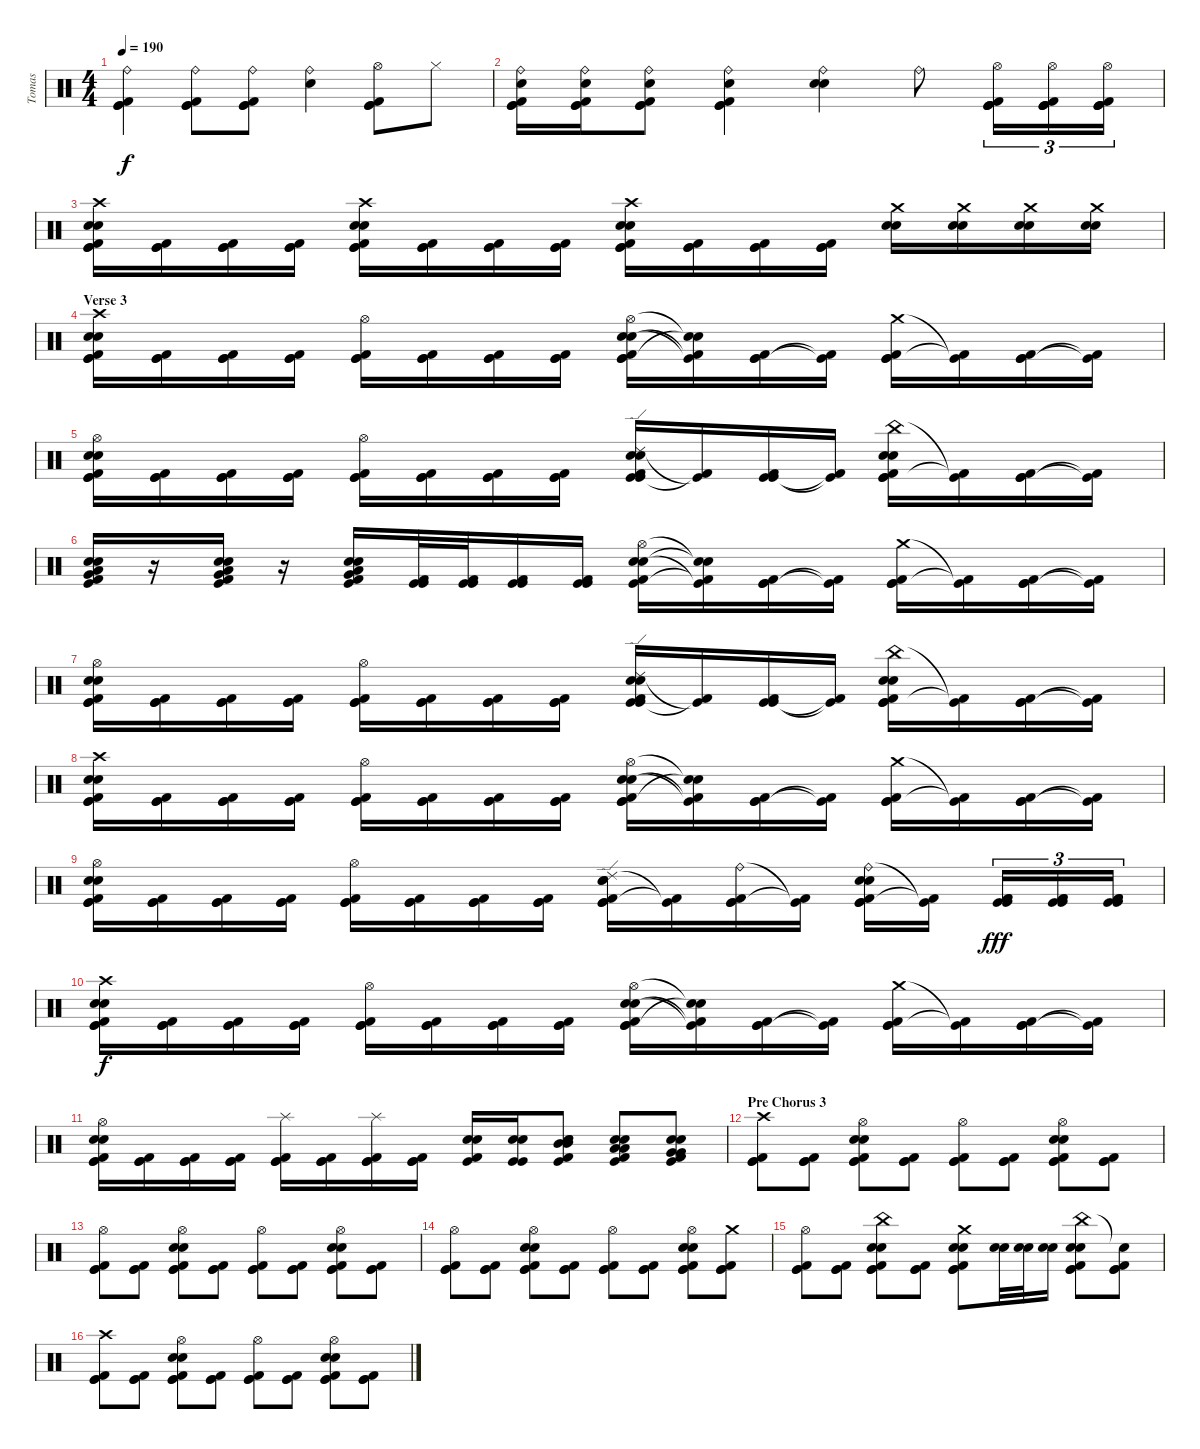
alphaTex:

\track ("Tomas" "Tomas") {instrument percussion}
\staff {score}
\articulation defaults
\ts (4 4)
\tempo 190
\clef neutral
\ks c
("Ride (bell)" "Kick (hit)" "Kick (hit)" "Kick (hit) 2").4{dy f} ("Ride (bell)" "Kick (hit)" "Kick (hit)" "Kick (hit) 2").8 ("Ride (bell)" "Kick (hit)" "Kick (hit)" "Kick (hit) 2").8 ("Ride (bell)" "Electric Snare (hit)").4 ("Hi-Hat (open)" "Kick (hit)" "Kick (hit)" "Kick (hit) 2").8 "Hi-Hat (closed)".8 |
("Ride (bell)" "Kick (hit)" "Electric Snare (hit)" "Kick (hit)" "Kick (hit) 2").16 ("Ride (bell)" "Kick (hit)" "Electric Snare (hit)" "Kick (hit)" "Kick (hit) 2").16 ("Ride (bell)" "Kick (hit)" "Electric Snare (hit)" "Kick (hit)" "Kick (hit) 2").8 ("Ride (bell)" "Kick (hit)" "Electric Snare (hit)" "Kick (hit)" "Kick (hit) 2").4 ("Ride (bell)" "Electric Snare (hit)" "Electric Snare (hit)").4 "Ride (bell)".8 ("Hi-Hat (open)" "Kick (hit)" "Kick (hit)" "Kick (hit)" "Kick (hit) 2").16{tu (3 2)} ("Hi-Hat (open)" "Kick (hit)" "Kick (hit)" "Kick (hit)" "Kick (hit) 2").16{tu (3 2)} ("Hi-Hat (open)" "Kick (hit)" "Kick (hit)" "Kick (hit)" "Kick (hit) 2").16{tu (3 2)} |
("Crash high (hit)" "Kick (hit)" "Kick (hit)" "Electric Snare (hit)" "Electric Snare (hit)" "Kick (hit) 2").16 ("Kick (hit)" "Kick (hit)" "Kick (hit) 2").16 ("Kick (hit)" "Kick (hit)" "Kick (hit) 2").16 ("Kick (hit)" "Kick (hit)" "Kick (hit) 2").16 ("Crash high (hit)" "Kick (hit)" "Kick (hit)" "Electric Snare (hit)" "Electric Snare (hit)" "Kick (hit) 2").16 ("Kick (hit)" "Kick (hit)" "Kick (hit) 2").16 ("Kick (hit)" "Kick (hit)" "Kick (hit) 2").16 ("Kick (hit)" "Kick (hit)" "Kick (hit) 2").16 ("Crash high (hit)" "Kick (hit)" "Kick (hit)" "Electric Snare (hit)" "Electric Snare (hit)" "Kick (hit) 2").16 ("Kick (hit)" "Kick (hit)" "Kick (hit) 2").16 ("Kick (hit)" "Kick (hit)" "Kick (hit) 2").16 ("Kick (hit)" "Kick (hit)" "Kick (hit) 2").16 ("Crash medium (hit)" "Electric Snare (hit)" "Electric Snare (hit)").16 ("Crash medium (hit)" "Electric Snare (hit)" "Electric Snare (hit)").16 ("Crash medium (hit)" "Electric Snare (hit)" "Electric Snare (hit)").16 ("Crash medium (hit)" "Electric Snare (hit)" "Electric Snare (hit)").16 |
\section ("" "Verse 3")
("Crash high (hit)" "Kick (hit)" "Electric Snare (hit)" "Electric Snare (hit)" "Kick (hit)" "Kick (hit) 2").16 ("Kick (hit)" "Kick (hit)" "Kick (hit) 2").16 ("Kick (hit)" "Kick (hit)" "Kick (hit) 2").16 ("Kick (hit)" "Kick (hit)" "Kick (hit) 2").16 ("Hi-Hat (open)" "Kick (hit)" "Kick (hit)" "Kick (hit) 2").16 ("Kick (hit)" "Kick (hit)" "Kick (hit) 2").16 ("Kick (hit)" "Kick (hit)" "Kick (hit) 2").16 ("Kick (hit)" "Kick (hit)" "Kick (hit) 2").16 ("Hi-Hat (open)" "Kick (hit)" "Electric Snare (hit)" "Electric Snare (hit)" "Kick (hit)" "Kick (hit) 2").16 ("Snare (hit)"{t} "Snare (hit)"{t} "Kick (hit)"{t} "Kick (hit) 2"{t}).16 ("Kick (hit)" "Kick (hit)" "Kick (hit) 2").16 ("Kick (hit)"{t} "Kick (hit) 2"{t}).16 ("Crash medium (hit)" "Kick (hit)" "Kick (hit)" "Kick (hit) 2").16 ("Kick (hit)"{t} "Kick (hit) 2"{t}).16 ("Kick (hit)" "Kick (hit)" "Kick (hit) 2").16 ("Kick (hit)"{t} "Kick (hit) 2"{t}).16 |
("Hi-Hat (open)" "Kick (hit)" "Electric Snare (hit)" "Electric Snare (hit)" "Kick (hit)" "Kick (hit) 2").16 ("Kick (hit)" "Kick (hit)" "Kick (hit) 2").16 ("Kick (hit)" "Kick (hit)" "Kick (hit) 2").16 ("Kick (hit)" "Kick (hit)" "Kick (hit) 2").16 ("Hi-Hat (open)" "Kick (hit)" "Kick (hit)" "Kick (hit) 2").16 ("Kick (hit)" "Kick (hit)" "Kick (hit) 2").16 ("Kick (hit)" "Kick (hit)" "Kick (hit) 2").16 ("Kick (hit)" "Kick (hit)" "Kick (hit) 2").16 ("Ride (edge) 2" "Kick (hit)" "Electric Snare (hit)" "Electric Snare (hit)" "Kick (hit)" "Kick (hit) 2").16 ("Kick (hit)"{t} "Kick (hit) 2"{t}).16 ("Kick (hit)" "Kick (hit)" "Kick (hit) 2").16 ("Kick (hit)"{t} "Kick (hit) 2"{t}).16 ("China (hit)" "Kick (hit)" "Electric Snare (hit)" "Electric Snare (hit)" "Kick (hit)" "Kick (hit) 2").16 ("Kick (hit)"{t} "Kick (hit) 2"{t}).16 ("Kick (hit)" "Kick (hit)" "Kick (hit) 2").16 ("Kick (hit)"{t} "Kick (hit) 2"{t}).16 |
("Kick (hit)" "Kick (hit) 2" "Electric Snare (hit)" "Electric Snare (hit)" "Very Low Tom (hit)" "Low Floor Tom (hit)").16 r.16 ("Kick (hit)" "Kick (hit) 2" "Electric Snare (hit)" "Electric Snare (hit)" "Very Low Tom (hit)" "Low Floor Tom (hit)").16 r.16 ("Kick (hit)" "Kick (hit) 2" "Electric Snare (hit)" "Electric Snare (hit)" "Very Low Tom (hit)" "Low Floor Tom (hit)").16 ("Kick (hit)" "Kick (hit)" "Kick (hit) 2").32 ("Kick (hit)" "Kick (hit)" "Kick (hit) 2").32 ("Kick (hit)" "Kick (hit)" "Kick (hit) 2").16 ("Kick (hit)" "Kick (hit)" "Kick (hit) 2").16 ("Hi-Hat (open)" "Electric Snare (hit)" "Electric Snare (hit)" "Kick (hit)" "Kick (hit) 2").16 ("Snare (hit)"{t} "Snare (hit)"{t} "Kick (hit)"{t} "Kick (hit) 2"{t}).16 ("Kick (hit)" "Kick (hit)" "Kick (hit) 2").16 ("Kick (hit)"{t} "Kick (hit) 2"{t}).16 ("Crash medium (hit)" "Kick (hit)" "Kick (hit)" "Kick (hit) 2").16 ("Kick (hit)"{t} "Kick (hit) 2"{t}).16 ("Kick (hit)" "Kick (hit)" "Kick (hit) 2").16 ("Kick (hit)"{t} "Kick (hit) 2"{t}).16 |
("Hi-Hat (open)" "Kick (hit)" "Electric Snare (hit)" "Electric Snare (hit)" "Kick (hit)" "Kick (hit) 2").16 ("Kick (hit)" "Kick (hit)" "Kick (hit) 2").16 ("Kick (hit)" "Kick (hit)" "Kick (hit) 2").16 ("Kick (hit)" "Kick (hit)" "Kick (hit) 2").16 ("Hi-Hat (open)" "Kick (hit)" "Kick (hit)" "Kick (hit) 2").16 ("Kick (hit)" "Kick (hit)" "Kick (hit) 2").16 ("Kick (hit)" "Kick (hit)" "Kick (hit) 2").16 ("Kick (hit)" "Kick (hit)" "Kick (hit) 2").16 ("Ride (edge) 2" "Kick (hit)" "Electric Snare (hit)" "Electric Snare (hit)" "Kick (hit)" "Kick (hit) 2").16 ("Kick (hit)"{t} "Kick (hit) 2"{t}).16 ("Kick (hit)" "Kick (hit)" "Kick (hit) 2").16 ("Kick (hit)"{t} "Kick (hit) 2"{t}).16 ("China (hit)" "Kick (hit)" "Electric Snare (hit)" "Electric Snare (hit)" "Kick (hit)" "Kick (hit) 2").16 ("Kick (hit)"{t} "Kick (hit) 2"{t}).16 ("Kick (hit)" "Kick (hit)" "Kick (hit) 2").16 ("Kick (hit)"{t} "Kick (hit) 2"{t}).16 |
("Crash high (hit)" "Kick (hit)" "Electric Snare (hit)" "Electric Snare (hit)" "Kick (hit)" "Kick (hit) 2").16 ("Kick (hit)" "Kick (hit)" "Kick (hit) 2").16 ("Kick (hit)" "Kick (hit)" "Kick (hit) 2").16 ("Kick (hit)" "Kick (hit)" "Kick (hit) 2").16 ("Hi-Hat (open)" "Kick (hit)" "Kick (hit)" "Kick (hit) 2").16 ("Kick (hit)" "Kick (hit)" "Kick (hit) 2").16 ("Kick (hit)" "Kick (hit)" "Kick (hit) 2").16 ("Kick (hit)" "Kick (hit)" "Kick (hit) 2").16 ("Hi-Hat (open)" "Kick (hit)" "Electric Snare (hit)" "Electric Snare (hit)" "Kick (hit)" "Kick (hit) 2").16 ("Snare (hit)"{t} "Snare (hit)"{t} "Kick (hit)"{t} "Kick (hit) 2"{t}).16 ("Kick (hit)" "Kick (hit)" "Kick (hit) 2").16 ("Kick (hit)"{t} "Kick (hit) 2"{t}).16 ("Crash medium (hit)" "Kick (hit)" "Kick (hit)" "Kick (hit) 2").16 ("Kick (hit)"{t} "Kick (hit) 2"{t}).16 ("Kick (hit)" "Kick (hit)" "Kick (hit) 2").16 ("Kick (hit)"{t} "Kick (hit) 2"{t}).16 |
("Hi-Hat (open)" "Kick (hit)" "Electric Snare (hit)" "Electric Snare (hit)" "Kick (hit)" "Kick (hit) 2").16 ("Kick (hit)" "Kick (hit)" "Kick (hit) 2").16 ("Kick (hit)" "Kick (hit)" "Kick (hit) 2").16 ("Kick (hit)" "Kick (hit)" "Kick (hit) 2").16 ("Hi-Hat (open)" "Kick (hit)" "Kick (hit)" "Kick (hit) 2").16 ("Kick (hit)" "Kick (hit)" "Kick (hit) 2").16 ("Kick (hit)" "Kick (hit)" "Kick (hit) 2").16 ("Kick (hit)" "Kick (hit)" "Kick (hit) 2").16 ("Ride (edge) 2" "Kick (hit)" "Electric Snare (hit)" "Electric Snare (hit)" "Kick (hit)" "Kick (hit) 2").16 ("Kick (hit)"{t} "Kick (hit) 2"{t}).16 ("Ride (bell)" "Kick (hit)" "Kick (hit)" "Kick (hit) 2").16 ("Kick (hit)"{t} "Kick (hit) 2"{t}).16 ("Ride (bell)" "Kick (hit)" "Electric Snare (hit)" "Electric Snare (hit)" "Kick (hit)" "Kick (hit) 2").16 ("Kick (hit)"{t} "Kick (hit) 2"{t}).16 ("Kick (hit)" "Kick (hit) 2" "Kick (hit)" "Kick (hit) 2").16{tu (3 2) dy fff} ("Kick (hit)" "Kick (hit) 2" "Kick (hit)" "Kick (hit) 2").16{tu (3 2)} ("Kick (hit)" "Kick (hit) 2" "Kick (hit)" "Kick (hit) 2").16{tu (3 2)} |
("Crash high (hit)" "Kick (hit)" "Electric Snare (hit)" "Electric Snare (hit)" "Kick (hit)" "Kick (hit) 2").16{dy f} ("Kick (hit)" "Kick (hit)" "Kick (hit) 2").16 ("Kick (hit)" "Kick (hit)" "Kick (hit) 2").16 ("Kick (hit)" "Kick (hit)" "Kick (hit) 2").16 ("Hi-Hat (open)" "Kick (hit)" "Kick (hit)" "Kick (hit) 2").16 ("Kick (hit)" "Kick (hit)" "Kick (hit) 2").16 ("Kick (hit)" "Kick (hit)" "Kick (hit) 2").16 ("Kick (hit)" "Kick (hit)" "Kick (hit) 2").16 ("Hi-Hat (open)" "Kick (hit)" "Electric Snare (hit)" "Electric Snare (hit)" "Kick (hit)" "Kick (hit) 2").16 ("Snare (hit)"{t} "Snare (hit)"{t} "Kick (hit)"{t} "Kick (hit) 2"{t}).16 ("Kick (hit)" "Kick (hit)" "Kick (hit) 2").16 ("Kick (hit)"{t} "Kick (hit) 2"{t}).16 ("Crash medium (hit)" "Kick (hit)" "Kick (hit)" "Kick (hit) 2").16 ("Kick (hit)"{t} "Kick (hit) 2"{t}).16 ("Kick (hit)" "Kick (hit)" "Kick (hit) 2").16 ("Kick (hit)"{t} "Kick (hit) 2"{t}).16 |
("Hi-Hat (open)" "Kick (hit)" "Electric Snare (hit)" "Electric Snare (hit)" "Kick (hit)" "Kick (hit) 2").16 ("Kick (hit)" "Kick (hit)" "Kick (hit) 2").16 ("Kick (hit)" "Kick (hit)" "Kick (hit) 2").16 ("Kick (hit)" "Kick (hit)" "Kick (hit) 2").16 ("Splash (hit)" "Kick (hit)" "Kick (hit)" "Kick (hit) 2").16 ("Kick (hit)" "Kick (hit)" "Kick (hit) 2").16 ("Splash (hit)" "Kick (hit)" "Kick (hit)" "Kick (hit) 2").16 ("Kick (hit)" "Kick (hit)" "Kick (hit) 2").16 ("Electric Snare (hit)" "Electric Snare (hit)" "Kick (hit)" "Kick (hit) 2").16 ("Electric Snare (hit)" "Electric Snare (hit)" "Kick (hit)" "Kick (hit)").16 ("Mid Tom (hit)" "Mid Tom (hit)" "Electric Snare (hit)" "Electric Snare (hit)" "Kick (hit)" "Kick (hit) 2").8 ("Low Tom (hit)" "Low Tom (hit)" "Electric Snare (hit)" "Electric Snare (hit)" "Kick (hit)" "Kick (hit) 2").8 ("Very Low Tom (hit)" "Very Low Tom (hit)" "Electric Snare (hit)" "Electric Snare (hit)" "Kick (hit)" "Kick (hit) 2").8 |
\section ("" "Pre Chorus 3")
("Crash high (hit)" "Kick (hit)" "Kick (hit)" "Kick (hit) 2").8 ("Kick (hit)" "Kick (hit)" "Kick (hit) 2").8 ("Hi-Hat (open)" "Electric Snare (hit)" "Electric Snare (hit)" "Kick (hit)" "Kick (hit)" "Kick (hit) 2").8 ("Kick (hit)" "Kick (hit)" "Kick (hit) 2").8 ("Hi-Hat (open)" "Kick (hit)" "Kick (hit)" "Kick (hit) 2").8 ("Kick (hit)" "Kick (hit)" "Kick (hit) 2").8 ("Hi-Hat (open)" "Electric Snare (hit)" "Electric Snare (hit)" "Kick (hit)" "Kick (hit)" "Kick (hit) 2").8 ("Kick (hit)" "Kick (hit)" "Kick (hit) 2").8 |
("Hi-Hat (open)" "Kick (hit)" "Kick (hit)" "Kick (hit) 2").8 ("Kick (hit)" "Kick (hit)" "Kick (hit) 2").8 ("Hi-Hat (open)" "Electric Snare (hit)" "Electric Snare (hit)" "Kick (hit)" "Kick (hit)" "Kick (hit) 2").8 ("Kick (hit)" "Kick (hit)" "Kick (hit) 2").8 ("Hi-Hat (open)" "Kick (hit)" "Kick (hit)" "Kick (hit) 2").8 ("Kick (hit)" "Kick (hit)" "Kick (hit) 2").8 ("Hi-Hat (open)" "Electric Snare (hit)" "Electric Snare (hit)" "Kick (hit)" "Kick (hit)" "Kick (hit) 2").8 ("Kick (hit)" "Kick (hit)" "Kick (hit) 2").8 |
("Hi-Hat (open)" "Kick (hit)" "Kick (hit)" "Kick (hit) 2").8 ("Kick (hit)" "Kick (hit)" "Kick (hit) 2").8 ("Hi-Hat (open)" "Electric Snare (hit)" "Electric Snare (hit)" "Kick (hit)" "Kick (hit)" "Kick (hit) 2").8 ("Kick (hit)" "Kick (hit)" "Kick (hit) 2").8 ("Hi-Hat (open)" "Kick (hit)" "Kick (hit)" "Kick (hit) 2").8 ("Kick (hit)" "Kick (hit)" "Kick (hit) 2").8 ("Hi-Hat (open)" "Electric Snare (hit)" "Electric Snare (hit)" "Kick (hit)" "Kick (hit)" "Kick (hit) 2").8 ("Crash medium (hit)" "Kick (hit)" "Kick (hit)" "Kick (hit) 2").8 |
("Hi-Hat (open)" "Kick (hit)" "Kick (hit)" "Kick (hit) 2").8 ("Kick (hit)" "Kick (hit)" "Kick (hit) 2").8 ("China (hit)" "Electric Snare (hit)" "Electric Snare (hit)" "Kick (hit)" "Kick (hit)" "Kick (hit) 2").8 ("Kick (hit)" "Kick (hit)" "Kick (hit) 2").8 ("Crash medium (hit)" "Electric Snare (hit)" "Electric Snare (hit)" "Kick (hit)" "Kick (hit)" "Kick (hit) 2").8 ("Electric Snare (hit)" "Electric Snare (hit)").32 ("Electric Snare (hit)" "Electric Snare (hit)").32 ("Electric Snare (hit)" "Electric Snare (hit)").16 ("China (hit)" "Electric Snare (hit)" "Electric Snare (hit)" "Kick (hit)" "Kick (hit)" "Kick (hit) 2").8 ("Snare (hit)"{t} "Kick (hit)" "Kick (hit)" "Kick (hit) 2").8 |
("Crash high (hit)" "Kick (hit)" "Kick (hit)" "Kick (hit) 2").8 ("Kick (hit)" "Kick (hit)" "Kick (hit) 2").8 ("Hi-Hat (open)" "Electric Snare (hit)" "Electric Snare (hit)" "Kick (hit)" "Kick (hit)" "Kick (hit) 2").8 ("Kick (hit)" "Kick (hit)" "Kick (hit) 2").8 ("Hi-Hat (open)" "Kick (hit)" "Kick (hit)" "Kick (hit) 2").8 ("Kick (hit)" "Kick (hit)" "Kick (hit) 2").8 ("Hi-Hat (open)" "Electric Snare (hit)" "Electric Snare (hit)" "Kick (hit)" "Kick (hit)" "Kick (hit) 2").8 ("Kick (hit)" "Kick (hit)" "Kick (hit) 2").8
